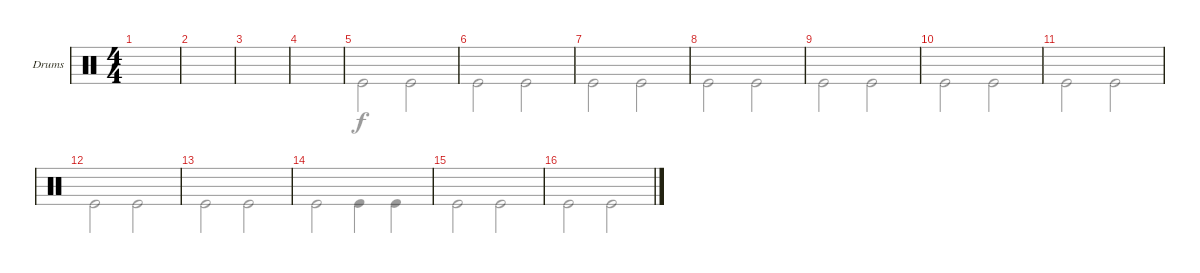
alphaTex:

\defaultSystemsLayout 4
\bracketExtendMode groupsimilarinstruments
\firstSystemTrackNameOrientation horizontal
\otherSystemsTrackNameOrientation horizontal
\track ("Drums" "Drums") {instrument percussion}
\staff {score}
\articulation defaults
\voice
\ts (4 4)
\tempo (85 hide)
\clef neutral
\ks aminor
|
|
|
|
|
|
|
|
|
|
|
|
|
|
|
\voice
\clef neutral
\ks aminor
|
|
|
|
"Kick (hit)".2 "Kick (hit)".2 |
"Kick (hit)".2 "Kick (hit)".2 |
"Kick (hit)".2 "Kick (hit)".2 |
"Kick (hit)".2 "Kick (hit)".2 |
"Kick (hit)".2 "Kick (hit)".2 |
"Kick (hit)".2 "Kick (hit)".2 |
"Kick (hit)".2 "Kick (hit)".2 |
"Kick (hit)".2 "Kick (hit)".2 |
"Kick (hit)".2 "Kick (hit)".2 |
"Kick (hit)".2 "Kick (hit)".4 "Kick (hit)".4 |
"Kick (hit)".2 "Kick (hit)".2 |
"Kick (hit)".2 "Kick (hit)".2
